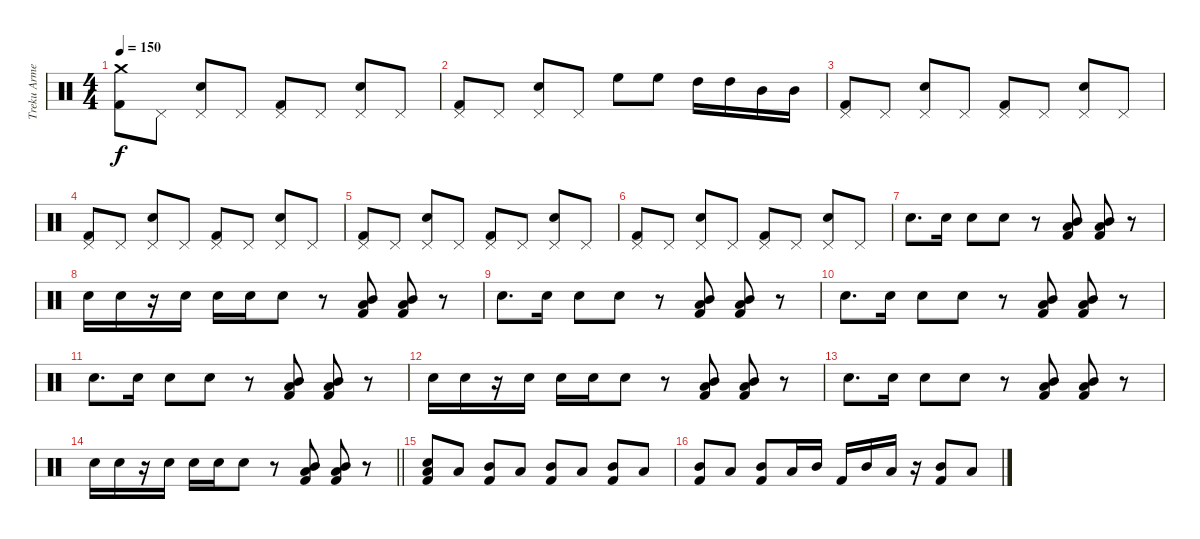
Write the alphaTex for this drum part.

\track ("Treku Armendáriz" "Treku Arme") {instrument percussion}
\staff {score}
\articulation defaults
\ts (4 4)
\tempo 150
\clef neutral
\ks c
("Crash medium (hit)" "Kick (hit) 2").8{dy f} "Pedal Hi-Hat (hit)".8 ("Pedal Hi-Hat (hit)" "Electric Snare (hit)").8 "Pedal Hi-Hat (hit)".8 ("Pedal Hi-Hat (hit)" "Kick (hit) 2").8 "Pedal Hi-Hat (hit)".8 ("Pedal Hi-Hat (hit)" "Electric Snare (hit)").8 "Pedal Hi-Hat (hit)".8 |
("Pedal Hi-Hat (hit)" "Kick (hit) 2").8 "Pedal Hi-Hat (hit)".8 ("Pedal Hi-Hat (hit)" "Electric Snare (hit)").8 "Pedal Hi-Hat (hit)".8 "High Floor Tom (hit)".8 "High Floor Tom (hit)".8 "High Tom (hit)".16 "High Tom (hit)".16 "Mid Tom (hit)".16 "Mid Tom (hit)".16 |
("Pedal Hi-Hat (hit)" "Kick (hit) 2").8 "Pedal Hi-Hat (hit)".8 ("Pedal Hi-Hat (hit)" "Electric Snare (hit)").8 "Pedal Hi-Hat (hit)".8 ("Pedal Hi-Hat (hit)" "Kick (hit) 2").8 "Pedal Hi-Hat (hit)".8 ("Pedal Hi-Hat (hit)" "Electric Snare (hit)").8 "Pedal Hi-Hat (hit)".8 |
("Pedal Hi-Hat (hit)" "Kick (hit) 2").8 "Pedal Hi-Hat (hit)".8 ("Pedal Hi-Hat (hit)" "Electric Snare (hit)").8 "Pedal Hi-Hat (hit)".8 ("Pedal Hi-Hat (hit)" "Kick (hit) 2").8 "Pedal Hi-Hat (hit)".8 ("Pedal Hi-Hat (hit)" "Electric Snare (hit)").8 "Pedal Hi-Hat (hit)".8 |
("Pedal Hi-Hat (hit)" "Kick (hit) 2").8 "Pedal Hi-Hat (hit)".8 ("Pedal Hi-Hat (hit)" "Electric Snare (hit)").8 "Pedal Hi-Hat (hit)".8 ("Pedal Hi-Hat (hit)" "Kick (hit) 2").8 "Pedal Hi-Hat (hit)".8 ("Pedal Hi-Hat (hit)" "Electric Snare (hit)").8 "Pedal Hi-Hat (hit)".8 |
("Pedal Hi-Hat (hit)" "Kick (hit) 2").8 "Pedal Hi-Hat (hit)".8 ("Pedal Hi-Hat (hit)" "Electric Snare (hit)").8 "Pedal Hi-Hat (hit)".8 ("Pedal Hi-Hat (hit)" "Kick (hit) 2").8 "Pedal Hi-Hat (hit)".8 ("Pedal Hi-Hat (hit)" "Electric Snare (hit)").8 "Pedal Hi-Hat (hit)".8 |
"Electric Snare (hit)".8{d} "Electric Snare (hit)".16 "Electric Snare (hit)".8 "Electric Snare (hit)".8 r.8 ("Kick (hit) 2" "Low Tom (hit)" "Mid Tom (hit)").8 ("Kick (hit) 2" "Low Tom (hit)" "Mid Tom (hit)").8 r.8 |
"Electric Snare (hit)".16 "Electric Snare (hit)".16 r.16 "Electric Snare (hit)".16 "Electric Snare (hit)".16 "Electric Snare (hit)".16 "Electric Snare (hit)".8 r.8 ("Kick (hit) 2" "Low Tom (hit)" "Mid Tom (hit)").8 ("Kick (hit) 2" "Low Tom (hit)" "Mid Tom (hit)").8 r.8 |
"Electric Snare (hit)".8{d} "Electric Snare (hit)".16 "Electric Snare (hit)".8 "Electric Snare (hit)".8 r.8 ("Kick (hit) 2" "Low Tom (hit)" "Mid Tom (hit)").8 ("Kick (hit) 2" "Low Tom (hit)" "Mid Tom (hit)").8 r.8 |
"Electric Snare (hit)".8{d} "Electric Snare (hit)".16 "Electric Snare (hit)".8 "Electric Snare (hit)".8 r.8 ("Kick (hit) 2" "Low Tom (hit)" "Mid Tom (hit)").8 ("Kick (hit) 2" "Low Tom (hit)" "Mid Tom (hit)").8 r.8 |
"Electric Snare (hit)".8{d} "Electric Snare (hit)".16 "Electric Snare (hit)".8 "Electric Snare (hit)".8 r.8 ("Kick (hit) 2" "Low Tom (hit)" "Mid Tom (hit)").8 ("Kick (hit) 2" "Low Tom (hit)" "Mid Tom (hit)").8 r.8 |
"Electric Snare (hit)".16 "Electric Snare (hit)".16 r.16 "Electric Snare (hit)".16 "Electric Snare (hit)".16 "Electric Snare (hit)".16 "Electric Snare (hit)".8 r.8 ("Kick (hit) 2" "Low Tom (hit)" "Mid Tom (hit)").8 ("Kick (hit) 2" "Low Tom (hit)" "Mid Tom (hit)").8 r.8 |
"Electric Snare (hit)".8{d} "Electric Snare (hit)".16 "Electric Snare (hit)".8 "Electric Snare (hit)".8 r.8 ("Kick (hit) 2" "Low Tom (hit)" "Mid Tom (hit)").8 ("Kick (hit) 2" "Low Tom (hit)" "Mid Tom (hit)").8 r.8 |
\barLineRight lightlight "Electric Snare (hit)".16 "Electric Snare (hit)".16
r.16 "Electric Snare (hit)".16 "Electric Snare (hit)".16 "Electric Snare (hit)".16 "Electric Snare (hit)".8 r.8 ("Kick (hit) 2" "Low Tom (hit)" "Mid Tom (hit)").8 ("Kick (hit) 2" "Low Tom (hit)" "Mid Tom (hit)").8 r.8 |
("Kick (hit) 2" "Electric Snare (hit)" "Low Tom (hit)").8 "Low Tom (hit)".8 ("Kick (hit) 2" "Mid Tom (hit)").8 "Low Tom (hit)".8 ("Kick (hit) 2" "Mid Tom (hit)").8 "Low Tom (hit)".8 ("Kick (hit) 2" "Mid Tom (hit)").8 "Low Tom (hit)".8 |
("Kick (hit) 2" "Mid Tom (hit)").8 "Low Tom (hit)".8 ("Kick (hit) 2" "Mid Tom (hit)").8 "Low Tom (hit)".16 "Mid Tom (hit)".16 "Kick (hit) 2".16 "Mid Tom (hit)".16 "Low Tom (hit)".16 r.16 ("Kick (hit) 2" "Mid Tom (hit)").8 "Low Tom (hit)".8
